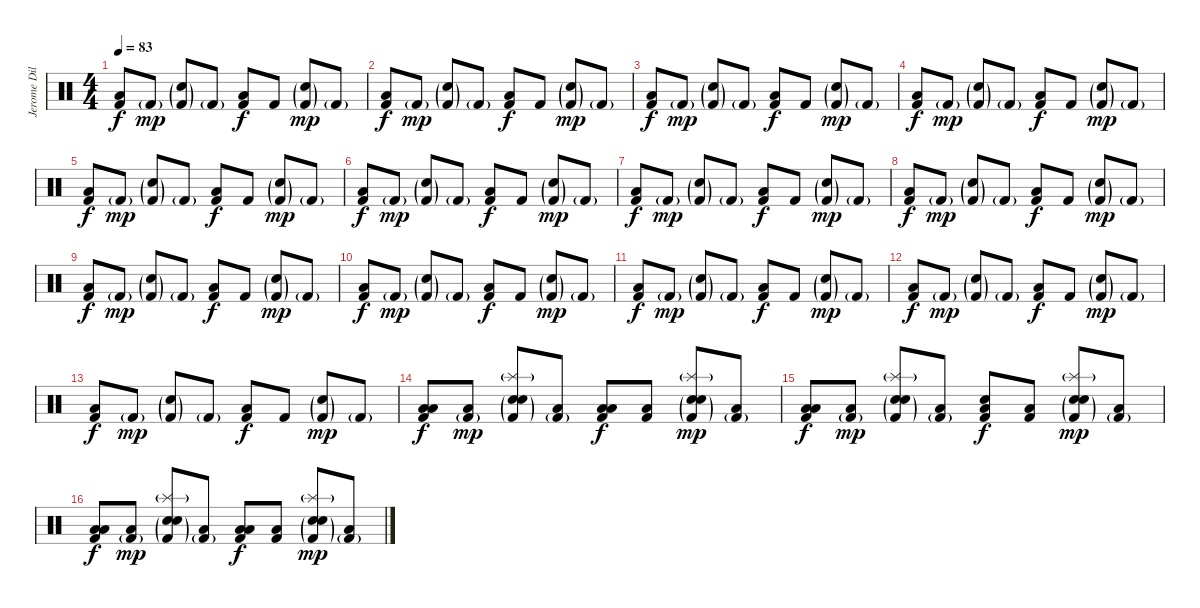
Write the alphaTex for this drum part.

\track ("Jerome Dillon" "Jerome Dil") {instrument percussion}
\staff {score}
\articulation defaults
\ts (4 4)
\tempo 83
\clef neutral
\ks c
("Low Floor Tom (hit)" "Kick (hit) 2").8{dy f} "Kick (hit) 2"{g}.8{dy mp} ("Electric Snare (hit)"{g} "Kick (hit) 2"{g}).8 "Kick (hit) 2"{g}.8 ("Low Floor Tom (hit)" "Kick (hit) 2").8{dy f} "Kick (hit) 2".8 ("Electric Snare (hit)"{g} "Kick (hit) 2"{g}).8{dy mp} "Kick (hit) 2"{g}.8 |
("Low Floor Tom (hit)" "Kick (hit) 2").8{dy f} "Kick (hit) 2"{g}.8{dy mp} ("Electric Snare (hit)"{g} "Kick (hit) 2"{g}).8 "Kick (hit) 2"{g}.8 ("Low Floor Tom (hit)" "Kick (hit) 2").8{dy f} "Kick (hit) 2".8 ("Electric Snare (hit)"{g} "Kick (hit) 2"{g}).8{dy mp} "Kick (hit) 2"{g}.8 |
("Low Floor Tom (hit)" "Kick (hit) 2").8{dy f} "Kick (hit) 2"{g}.8{dy mp} ("Electric Snare (hit)"{g} "Kick (hit) 2"{g}).8 "Kick (hit) 2"{g}.8 ("Low Floor Tom (hit)" "Kick (hit) 2").8{dy f} "Kick (hit) 2".8 ("Electric Snare (hit)"{g} "Kick (hit) 2"{g}).8{dy mp} "Kick (hit) 2"{g}.8 |
("Low Floor Tom (hit)" "Kick (hit) 2").8{dy f} "Kick (hit) 2"{g}.8{dy mp} ("Electric Snare (hit)"{g} "Kick (hit) 2"{g}).8 "Kick (hit) 2"{g}.8 ("Low Floor Tom (hit)" "Kick (hit) 2").8{dy f} "Kick (hit) 2".8 ("Electric Snare (hit)"{g} "Kick (hit) 2"{g}).8{dy mp} "Kick (hit) 2"{g}.8 |
("Low Floor Tom (hit)" "Kick (hit) 2").8{dy f} "Kick (hit) 2"{g}.8{dy mp} ("Electric Snare (hit)"{g} "Kick (hit) 2"{g}).8 "Kick (hit) 2"{g}.8 ("Low Floor Tom (hit)" "Kick (hit) 2").8{dy f} "Kick (hit) 2".8 ("Electric Snare (hit)"{g} "Kick (hit) 2"{g}).8{dy mp} "Kick (hit) 2"{g}.8 |
("Low Floor Tom (hit)" "Kick (hit) 2").8{dy f} "Kick (hit) 2"{g}.8{dy mp} ("Electric Snare (hit)"{g} "Kick (hit) 2"{g}).8 "Kick (hit) 2"{g}.8 ("Low Floor Tom (hit)" "Kick (hit) 2").8{dy f} "Kick (hit) 2".8 ("Electric Snare (hit)"{g} "Kick (hit) 2"{g}).8{dy mp} "Kick (hit) 2"{g}.8 |
("Low Floor Tom (hit)" "Kick (hit) 2").8{dy f} "Kick (hit) 2"{g}.8{dy mp} ("Electric Snare (hit)"{g} "Kick (hit) 2"{g}).8 "Kick (hit) 2"{g}.8 ("Low Floor Tom (hit)" "Kick (hit) 2").8{dy f} "Kick (hit) 2".8 ("Electric Snare (hit)"{g} "Kick (hit) 2"{g}).8{dy mp} "Kick (hit) 2"{g}.8 |
("Low Floor Tom (hit)" "Kick (hit) 2").8{dy f} "Kick (hit) 2"{g}.8{dy mp} ("Electric Snare (hit)"{g} "Kick (hit) 2"{g}).8 "Kick (hit) 2"{g}.8 ("Low Floor Tom (hit)" "Kick (hit) 2").8{dy f} "Kick (hit) 2".8 ("Electric Snare (hit)"{g} "Kick (hit) 2"{g}).8{dy mp} "Kick (hit) 2"{g}.8 |
("Low Floor Tom (hit)" "Kick (hit) 2").8{dy f} "Kick (hit) 2"{g}.8{dy mp} ("Electric Snare (hit)"{g} "Kick (hit) 2"{g}).8 "Kick (hit) 2"{g}.8 ("Low Floor Tom (hit)" "Kick (hit) 2").8{dy f} "Kick (hit) 2".8 ("Electric Snare (hit)"{g} "Kick (hit) 2"{g}).8{dy mp} "Kick (hit) 2"{g}.8 |
("Low Floor Tom (hit)" "Kick (hit) 2").8{dy f} "Kick (hit) 2"{g}.8{dy mp} ("Electric Snare (hit)"{g} "Kick (hit) 2"{g}).8 "Kick (hit) 2"{g}.8 ("Low Floor Tom (hit)" "Kick (hit) 2").8{dy f} "Kick (hit) 2".8 ("Electric Snare (hit)"{g} "Kick (hit) 2"{g}).8{dy mp} "Kick (hit) 2"{g}.8 |
("Low Floor Tom (hit)" "Kick (hit) 2").8{dy f} "Kick (hit) 2"{g}.8{dy mp} ("Electric Snare (hit)"{g} "Kick (hit) 2"{g}).8 "Kick (hit) 2"{g}.8 ("Low Floor Tom (hit)" "Kick (hit) 2").8{dy f} "Kick (hit) 2".8 ("Electric Snare (hit)"{g} "Kick (hit) 2"{g}).8{dy mp} "Kick (hit) 2"{g}.8 |
("Low Floor Tom (hit)" "Kick (hit) 2").8{dy f} "Kick (hit) 2"{g}.8{dy mp} ("Electric Snare (hit)"{g} "Kick (hit) 2"{g}).8 "Kick (hit) 2"{g}.8 ("Low Floor Tom (hit)" "Kick (hit) 2").8{dy f} "Kick (hit) 2".8 ("Electric Snare (hit)"{g} "Kick (hit) 2"{g}).8{dy mp} "Kick (hit) 2"{g}.8 |
("Low Floor Tom (hit)" "Kick (hit) 2").8{dy f} "Kick (hit) 2"{g}.8{dy mp} ("Electric Snare (hit)"{g} "Kick (hit) 2"{g}).8 "Kick (hit) 2"{g}.8 ("Low Floor Tom (hit)" "Kick (hit) 2").8{dy f} "Kick (hit) 2".8 ("Electric Snare (hit)"{g} "Kick (hit) 2"{g}).8{dy mp} "Kick (hit) 2"{g}.8 |
("Low Floor Tom (hit)" "Low Tom (hit)" "Kick (hit) 2").8{dy f} ("Low Tom (hit)" "Kick (hit) 2"{g}).8{dy mp} ("Splash (hit)"{g} "Hand Clap (hit)" "Electric Snare (hit)"{g} "Kick (hit) 2"{g}).8 ("Low Tom (hit)" "Kick (hit) 2"{g}).8 ("Low Floor Tom (hit)" "Low Tom (hit)" "Kick (hit) 2").8{dy f} ("Low Tom (hit)" "Kick (hit) 2").8 ("Splash (hit)"{g} "Hand Clap (hit)" "Electric Snare (hit)"{g} "Kick (hit) 2"{g}).8{dy mp} ("Low Tom (hit)" "Kick (hit) 2"{g}).8 |
("Low Floor Tom (hit)" "Low Tom (hit)" "Kick (hit) 2").8{dy f} ("Low Tom (hit)" "Kick (hit) 2"{g}).8{dy mp} ("Splash (hit)"{g} "Hand Clap (hit)" "Electric Snare (hit)"{g} "Kick (hit) 2"{g}).8 ("Low Tom (hit)" "Kick (hit) 2"{g}).8 ("Low Floor Tom (hit)" "Snare (hit)" "Kick (hit) 2").8{dy f} ("Low Tom (hit)" "Kick (hit) 2").8 ("Splash (hit)"{g} "Hand Clap (hit)" "Electric Snare (hit)"{g} "Kick (hit) 2"{g}).8{dy mp} ("Low Tom (hit)" "Kick (hit) 2"{g}).8 |
("Low Floor Tom (hit)" "Low Tom (hit)" "Kick (hit) 2").8{dy f} ("Low Tom (hit)" "Kick (hit) 2"{g}).8{dy mp} ("Splash (hit)"{g} "Hand Clap (hit)" "Electric Snare (hit)"{g} "Kick (hit) 2"{g}).8 ("Low Tom (hit)" "Kick (hit) 2"{g}).8 ("Low Floor Tom (hit)" "Low Tom (hit)" "Kick (hit) 2").8{dy f} ("Low Tom (hit)" "Kick (hit) 2").8 ("Splash (hit)"{g} "Hand Clap (hit)" "Electric Snare (hit)"{g} "Kick (hit) 2"{g}).8{dy mp} ("Low Tom (hit)" "Kick (hit) 2"{g}).8
